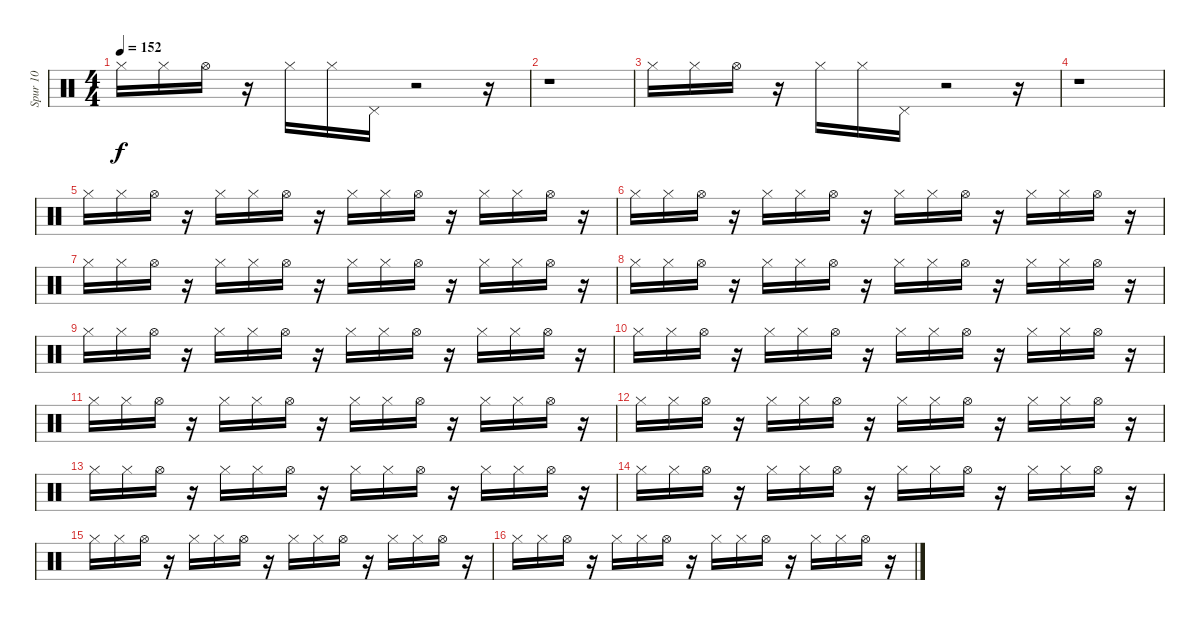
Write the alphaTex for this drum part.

\track ("Spur 10" "Spur 10") {instrument percussion}
\staff {score}
\articulation defaults
\ts (4 4)
\tempo 152
\clef neutral
\ks c "Hi-Hat (closed)".16{dy f} "Hi-Hat (closed)".16 "Hi-Hat (open)".16
r.16 "Hi-Hat (closed)".16 "Hi-Hat (closed)".16 "Pedal Hi-Hat (hit)".16 r.2 r.16 |
r.1 |
"Hi-Hat (closed)".16 "Hi-Hat (closed)".16 "Hi-Hat (open)".16 r.16 "Hi-Hat (closed)".16 "Hi-Hat (closed)".16 "Pedal Hi-Hat (hit)".16 r.2 r.16 |
r.1 |
"Hi-Hat (closed)".16 "Hi-Hat (closed)".16 "Hi-Hat (open)".16 r.16 "Hi-Hat (closed)".16 "Hi-Hat (closed)".16 "Hi-Hat (open)".16 r.16 "Hi-Hat (closed)".16 "Hi-Hat (closed)".16 "Hi-Hat (open)".16 r.16 "Hi-Hat (closed)".16 "Hi-Hat (closed)".16 "Hi-Hat (open)".16 r.16 |
"Hi-Hat (closed)".16 "Hi-Hat (closed)".16 "Hi-Hat (open)".16 r.16 "Hi-Hat (closed)".16 "Hi-Hat (closed)".16 "Hi-Hat (open)".16 r.16 "Hi-Hat (closed)".16 "Hi-Hat (closed)".16 "Hi-Hat (open)".16 r.16 "Hi-Hat (closed)".16 "Hi-Hat (closed)".16 "Hi-Hat (open)".16 r.16 |
"Hi-Hat (closed)".16 "Hi-Hat (closed)".16 "Hi-Hat (open)".16 r.16 "Hi-Hat (closed)".16 "Hi-Hat (closed)".16 "Hi-Hat (open)".16 r.16 "Hi-Hat (closed)".16 "Hi-Hat (closed)".16 "Hi-Hat (open)".16 r.16 "Hi-Hat (closed)".16 "Hi-Hat (closed)".16 "Hi-Hat (open)".16 r.16 |
"Hi-Hat (closed)".16 "Hi-Hat (closed)".16 "Hi-Hat (open)".16 r.16 "Hi-Hat (closed)".16 "Hi-Hat (closed)".16 "Hi-Hat (open)".16 r.16 "Hi-Hat (closed)".16 "Hi-Hat (closed)".16 "Hi-Hat (open)".16 r.16 "Hi-Hat (closed)".16 "Hi-Hat (closed)".16 "Hi-Hat (open)".16 r.16 |
"Hi-Hat (closed)".16 "Hi-Hat (closed)".16 "Hi-Hat (open)".16 r.16 "Hi-Hat (closed)".16 "Hi-Hat (closed)".16 "Hi-Hat (open)".16 r.16 "Hi-Hat (closed)".16 "Hi-Hat (closed)".16 "Hi-Hat (open)".16 r.16 "Hi-Hat (closed)".16 "Hi-Hat (closed)".16 "Hi-Hat (open)".16 r.16 |
"Hi-Hat (closed)".16 "Hi-Hat (closed)".16 "Hi-Hat (open)".16 r.16 "Hi-Hat (closed)".16 "Hi-Hat (closed)".16 "Hi-Hat (open)".16 r.16 "Hi-Hat (closed)".16 "Hi-Hat (closed)".16 "Hi-Hat (open)".16 r.16 "Hi-Hat (closed)".16 "Hi-Hat (closed)".16 "Hi-Hat (open)".16 r.16 |
"Hi-Hat (closed)".16 "Hi-Hat (closed)".16 "Hi-Hat (open)".16 r.16 "Hi-Hat (closed)".16 "Hi-Hat (closed)".16 "Hi-Hat (open)".16 r.16 "Hi-Hat (closed)".16 "Hi-Hat (closed)".16 "Hi-Hat (open)".16 r.16 "Hi-Hat (closed)".16 "Hi-Hat (closed)".16 "Hi-Hat (open)".16 r.16 |
"Hi-Hat (closed)".16 "Hi-Hat (closed)".16 "Hi-Hat (open)".16 r.16 "Hi-Hat (closed)".16 "Hi-Hat (closed)".16 "Hi-Hat (open)".16 r.16 "Hi-Hat (closed)".16 "Hi-Hat (closed)".16 "Hi-Hat (open)".16 r.16 "Hi-Hat (closed)".16 "Hi-Hat (closed)".16 "Hi-Hat (open)".16 r.16 |
"Hi-Hat (closed)".16 "Hi-Hat (closed)".16 "Hi-Hat (open)".16 r.16 "Hi-Hat (closed)".16 "Hi-Hat (closed)".16 "Hi-Hat (open)".16 r.16 "Hi-Hat (closed)".16 "Hi-Hat (closed)".16 "Hi-Hat (open)".16 r.16 "Hi-Hat (closed)".16 "Hi-Hat (closed)".16 "Hi-Hat (open)".16 r.16 |
"Hi-Hat (closed)".16 "Hi-Hat (closed)".16 "Hi-Hat (open)".16 r.16 "Hi-Hat (closed)".16 "Hi-Hat (closed)".16 "Hi-Hat (open)".16 r.16 "Hi-Hat (closed)".16 "Hi-Hat (closed)".16 "Hi-Hat (open)".16 r.16 "Hi-Hat (closed)".16 "Hi-Hat (closed)".16 "Hi-Hat (open)".16 r.16 |
"Hi-Hat (closed)".16 "Hi-Hat (closed)".16 "Hi-Hat (open)".16 r.16 "Hi-Hat (closed)".16 "Hi-Hat (closed)".16 "Hi-Hat (open)".16 r.16 "Hi-Hat (closed)".16 "Hi-Hat (closed)".16 "Hi-Hat (open)".16 r.16 "Hi-Hat (closed)".16 "Hi-Hat (closed)".16 "Hi-Hat (open)".16 r.16 |
"Hi-Hat (closed)".16 "Hi-Hat (closed)".16 "Hi-Hat (open)".16 r.16 "Hi-Hat (closed)".16 "Hi-Hat (closed)".16 "Hi-Hat (open)".16 r.16 "Hi-Hat (closed)".16 "Hi-Hat (closed)".16 "Hi-Hat (open)".16 r.16 "Hi-Hat (closed)".16 "Hi-Hat (closed)".16 "Hi-Hat (open)".16 r.16
